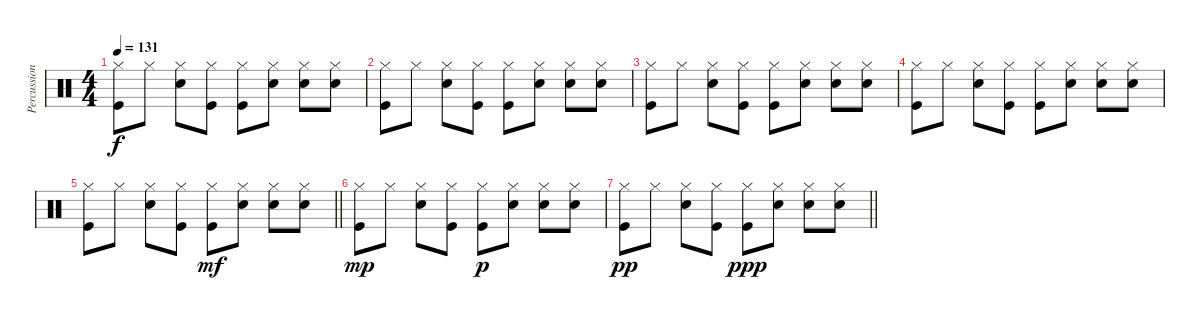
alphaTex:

\track ("Percussion" "Percussion") {instrument percussion}
\staff {score}
\articulation defaults
\ts (4 4)
\tempo 131
\clef neutral
\ks c
("Hi-Hat (closed)" "Kick (hit)").8{dy f} "Hi-Hat (closed)".8 ("Hi-Hat (closed)" "Snare (hit) 2").8 ("Hi-Hat (closed)" "Kick (hit)").8 ("Hi-Hat (closed)" "Kick (hit)").8 ("Hi-Hat (closed)" "Snare (hit) 2").8 ("Hi-Hat (closed)" "Snare (hit) 2").8 ("Hi-Hat (closed)" "Snare (hit) 2").8 |
("Hi-Hat (closed)" "Kick (hit)").8 "Hi-Hat (closed)".8 ("Hi-Hat (closed)" "Snare (hit) 2").8 ("Hi-Hat (closed)" "Kick (hit)").8 ("Hi-Hat (closed)" "Kick (hit)").8 ("Hi-Hat (closed)" "Snare (hit) 2").8 ("Hi-Hat (closed)" "Snare (hit) 2").8 ("Hi-Hat (closed)" "Snare (hit) 2").8 |
("Hi-Hat (closed)" "Kick (hit)").8 "Hi-Hat (closed)".8 ("Hi-Hat (closed)" "Snare (hit) 2").8 ("Hi-Hat (closed)" "Kick (hit)").8 ("Hi-Hat (closed)" "Kick (hit)").8 ("Hi-Hat (closed)" "Snare (hit) 2").8 ("Hi-Hat (closed)" "Snare (hit) 2").8 ("Hi-Hat (closed)" "Snare (hit) 2").8 |
("Hi-Hat (closed)" "Kick (hit)").8 "Hi-Hat (closed)".8 ("Hi-Hat (closed)" "Snare (hit) 2").8 ("Hi-Hat (closed)" "Kick (hit)").8 ("Hi-Hat (closed)" "Kick (hit)").8 ("Hi-Hat (closed)" "Snare (hit) 2").8 ("Hi-Hat (closed)" "Snare (hit) 2").8 ("Hi-Hat (closed)" "Snare (hit) 2").8 |
\barLineRight lightlight
("Hi-Hat (closed)" "Kick (hit)").8 "Hi-Hat (closed)".8 ("Hi-Hat (closed)" "Snare (hit) 2").8 ("Hi-Hat (closed)" "Kick (hit)").8 ("Hi-Hat (closed)" "Kick (hit)").8{dy mf} ("Hi-Hat (closed)" "Snare (hit) 2").8 ("Hi-Hat (closed)" "Snare (hit) 2").8 ("Hi-Hat (closed)" "Snare (hit) 2").8 |
("Hi-Hat (closed)" "Kick (hit)").8{dy mp} "Hi-Hat (closed)".8 ("Hi-Hat (closed)" "Snare (hit) 2").8 ("Hi-Hat (closed)" "Kick (hit)").8 ("Hi-Hat (closed)" "Kick (hit)").8{dy p} ("Hi-Hat (closed)" "Snare (hit) 2").8 ("Hi-Hat (closed)" "Snare (hit) 2").8 ("Hi-Hat (closed)" "Snare (hit) 2").8 |
\barLineRight lightlight
("Hi-Hat (closed)" "Kick (hit)").8{dy pp} "Hi-Hat (closed)".8 ("Hi-Hat (closed)" "Snare (hit) 2").8 ("Hi-Hat (closed)" "Kick (hit)").8 ("Hi-Hat (closed)" "Kick (hit)").8{dy ppp} ("Hi-Hat (closed)" "Snare (hit) 2").8 ("Hi-Hat (closed)" "Snare (hit) 2").8 ("Hi-Hat (closed)" "Snare (hit) 2").8
